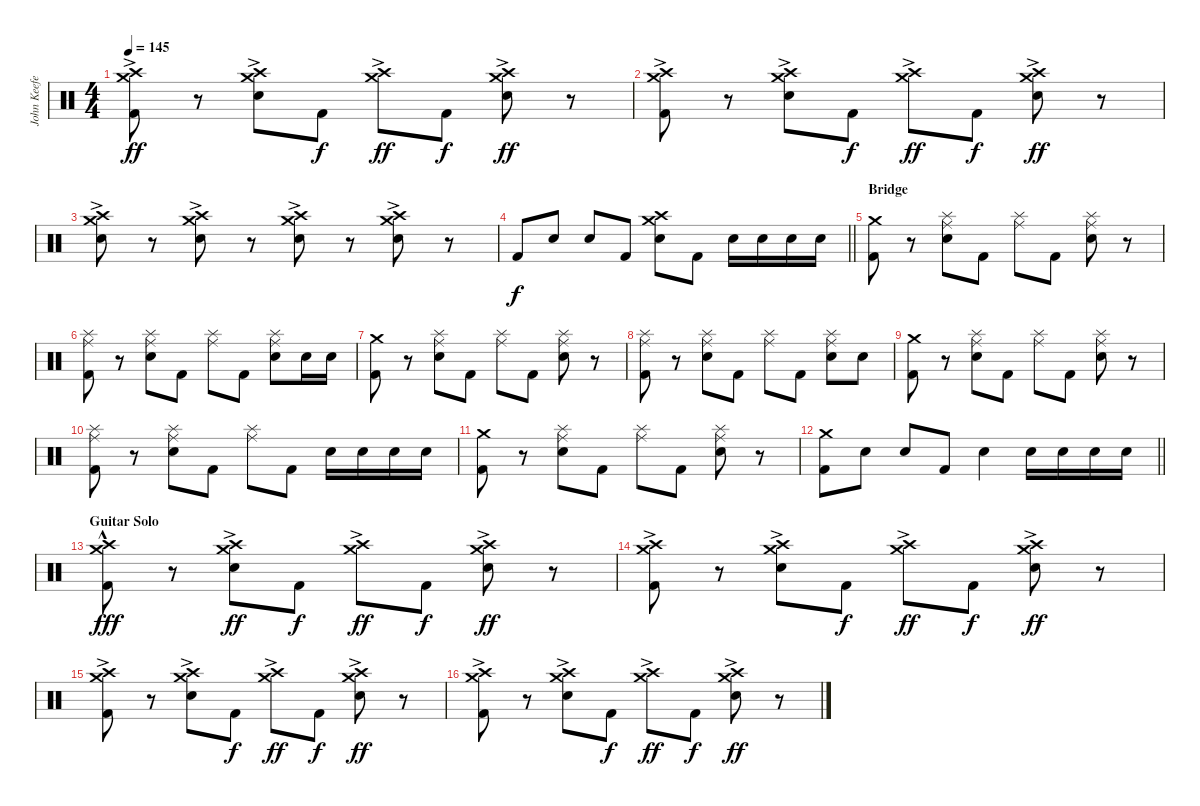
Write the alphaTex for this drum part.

\track ("John Keefe (Percussion)" "John Keefe") {instrument percussion}
\staff {score}
\articulation defaults
\ts (4 4)
\tempo 145
\clef neutral
\ks c
("Crash high (hit)"{ac} "Crash medium (hit)"{ac} "Kick (hit) 2").8{dy ff} r.8 ("Crash high (hit)"{ac} "Crash medium (hit)"{ac} "Electric Snare (hit)").8 "Kick (hit) 2".8{dy f} ("Crash high (hit)"{ac} "Crash medium (hit)"{ac}).8{dy ff} "Kick (hit) 2".8{dy f} ("Crash high (hit)"{ac} "Crash medium (hit)"{ac} "Electric Snare (hit)").8{dy ff} r.8 |
("Crash high (hit)"{ac} "Crash medium (hit)"{ac} "Kick (hit) 2").8 r.8 ("Crash high (hit)"{ac} "Crash medium (hit)"{ac} "Electric Snare (hit)").8 "Kick (hit) 2".8{dy f} ("Crash high (hit)"{ac} "Crash medium (hit)"{ac}).8{dy ff} "Kick (hit) 2".8{dy f} ("Crash high (hit)"{ac} "Crash medium (hit)"{ac} "Electric Snare (hit)").8{dy ff} r.8 |
("Crash high (hit)"{ac} "Crash medium (hit)"{ac} "Electric Snare (hit)").8 r.8 ("Crash high (hit)"{ac} "Crash medium (hit)"{ac} "Electric Snare (hit)").8 r.8 ("Crash high (hit)"{ac} "Crash medium (hit)"{ac} "Electric Snare (hit)").8 r.8 ("Crash high (hit)"{ac} "Crash medium (hit)"{ac} "Electric Snare (hit)").8 r.8 |
\barLineRight lightlight "Kick (hit) 2".8{dy f} "Electric Snare (hit)".8 "Electric Snare (hit)".8 "Kick (hit) 2".8
("Crash high (hit)" "Crash medium (hit)" "Electric Snare (hit)").8 "Kick (hit) 2".8 "Electric Snare (hit)".16 "Electric Snare (hit)".16 "Electric Snare (hit)".16 "Electric Snare (hit)".16 |
\section ("" "Bridge")
("Crash medium (hit)" "Kick (hit) 2").8 r.8 ("Ride (middle)" "Splash (hit)" "Electric Snare (hit)").8 "Kick (hit) 2".8 ("Ride (middle)" "Splash (hit)").8 "Kick (hit) 2".8 ("Ride (middle)" "Splash (hit)" "Electric Snare (hit)").8 r.8 |
("Ride (middle)" "Splash (hit)" "Kick (hit) 2").8 r.8 ("Ride (middle)" "Splash (hit)" "Electric Snare (hit)").8 "Kick (hit) 2".8 ("Ride (middle)" "Splash (hit)").8 "Kick (hit) 2".8 ("Ride (middle)" "Splash (hit)" "Electric Snare (hit)").8 "Electric Snare (hit)".16 "Electric Snare (hit)".16 |
("Crash medium (hit)" "Kick (hit) 2").8 r.8 ("Ride (middle)" "Splash (hit)" "Electric Snare (hit)").8 "Kick (hit) 2".8 ("Ride (middle)" "Splash (hit)").8 "Kick (hit) 2".8 ("Ride (middle)" "Splash (hit)" "Electric Snare (hit)").8 r.8 |
("Ride (middle)" "Splash (hit)" "Kick (hit) 2").8 r.8 ("Ride (middle)" "Splash (hit)" "Electric Snare (hit)").8 "Kick (hit) 2".8 ("Ride (middle)" "Splash (hit)").8 "Kick (hit) 2".8 ("Ride (middle)" "Splash (hit)" "Electric Snare (hit)").8 "Electric Snare (hit)".8 |
("Crash medium (hit)" "Kick (hit) 2").8 r.8 ("Ride (middle)" "Splash (hit)" "Electric Snare (hit)").8 "Kick (hit) 2".8 ("Ride (middle)" "Splash (hit)").8 "Kick (hit) 2".8 ("Ride (middle)" "Splash (hit)" "Electric Snare (hit)").8 r.8 |
("Ride (middle)" "Splash (hit)" "Kick (hit) 2").8 r.8 ("Ride (middle)" "Splash (hit)" "Electric Snare (hit)").8 "Kick (hit) 2".8 ("Ride (middle)" "Splash (hit)").8 "Kick (hit) 2".8 "Electric Snare (hit)".16 "Electric Snare (hit)".16 "Electric Snare (hit)".16 "Electric Snare (hit)".16 |
("Crash medium (hit)" "Kick (hit) 2").8 r.8 ("Ride (middle)" "Splash (hit)" "Electric Snare (hit)").8 "Kick (hit) 2".8 ("Ride (middle)" "Splash (hit)").8 "Kick (hit) 2".8 ("Ride (middle)" "Splash (hit)" "Electric Snare (hit)").8 r.8 |
\barLineRight lightlight
("Crash medium (hit)" "Kick (hit) 2").8 "Electric Snare (hit)".8 "Electric Snare (hit)".8 "Kick (hit) 2".8 "Electric Snare (hit)".4 "Electric Snare (hit)".16 "Electric Snare (hit)".16 "Electric Snare (hit)".16 "Electric Snare (hit)".16 |
\section ("" "Guitar Solo")
("Crash high (hit)"{hac} "Crash medium (hit)"{hac} "Kick (hit) 2"{hac}).8{dy fff} r.8 ("Crash high (hit)"{ac} "Crash medium (hit)"{ac} "Electric Snare (hit)").8{dy ff} "Kick (hit) 2".8{dy f} ("Crash high (hit)"{ac} "Crash medium (hit)"{ac}).8{dy ff} "Kick (hit) 2".8{dy f} ("Crash high (hit)"{ac} "Crash medium (hit)"{ac} "Electric Snare (hit)").8{dy ff} r.8 |
("Crash high (hit)"{ac} "Crash medium (hit)"{ac} "Kick (hit) 2").8 r.8 ("Crash high (hit)"{ac} "Crash medium (hit)"{ac} "Electric Snare (hit)").8 "Kick (hit) 2".8{dy f} ("Crash high (hit)"{ac} "Crash medium (hit)"{ac}).8{dy ff} "Kick (hit) 2".8{dy f} ("Crash high (hit)"{ac} "Crash medium (hit)"{ac} "Electric Snare (hit)").8{dy ff} r.8 |
("Crash high (hit)"{ac} "Crash medium (hit)"{ac} "Kick (hit) 2").8 r.8 ("Crash high (hit)"{ac} "Crash medium (hit)"{ac} "Electric Snare (hit)").8 "Kick (hit) 2".8{dy f} ("Crash high (hit)"{ac} "Crash medium (hit)"{ac}).8{dy ff} "Kick (hit) 2".8{dy f} ("Crash high (hit)"{ac} "Crash medium (hit)"{ac} "Electric Snare (hit)").8{dy ff} r.8 |
("Crash high (hit)"{ac} "Crash medium (hit)"{ac} "Kick (hit) 2").8 r.8 ("Crash high (hit)"{ac} "Crash medium (hit)"{ac} "Electric Snare (hit)").8 "Kick (hit) 2".8{dy f} ("Crash high (hit)"{ac} "Crash medium (hit)"{ac}).8{dy ff} "Kick (hit) 2".8{dy f} ("Crash high (hit)"{ac} "Crash medium (hit)"{ac} "Electric Snare (hit)").8{dy ff} r.8
